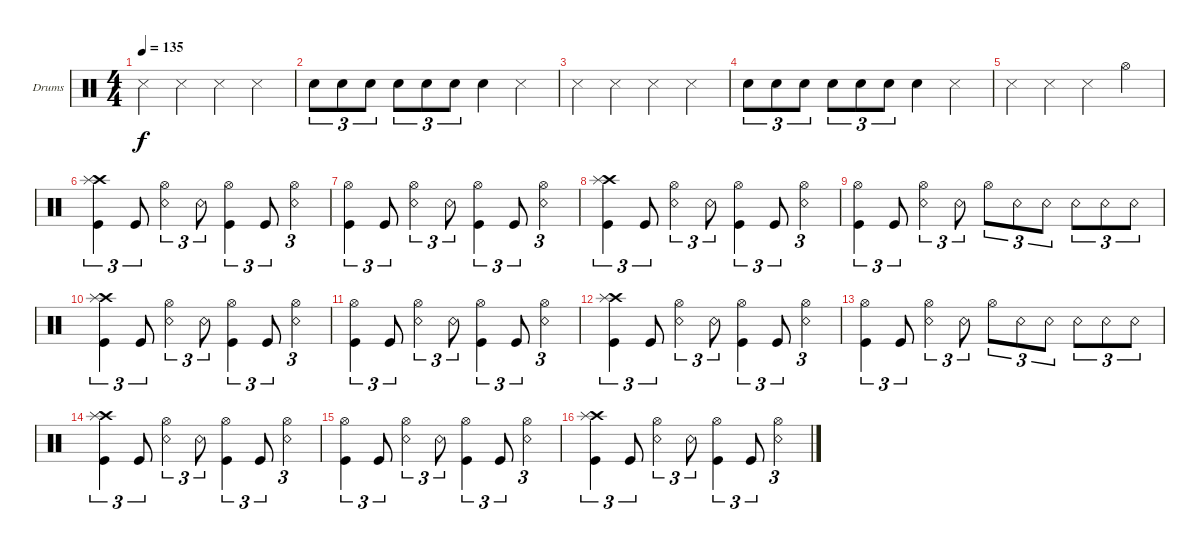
\bracketExtendMode groupsimilarinstruments
\firstSystemTrackNameOrientation horizontal
\otherSystemsTrackNameOrientation horizontal
\track ("Drumkit" "Drums") {instrument percussion}
\staff {score}
\articulation defaults
\ts (4 4)
\tempo 135
\clef neutral
\scale
0.333333
\ks c "Snare (side stick) 3".4{dy f} "Snare (side stick) 3".4 "Snare (side stick) 3".4 "Snare (side stick) 3".4
|
\scale
0.333333 "Snare (hit) 2".8{tu (3 2)} "Snare (hit) 2".8{tu (3 2)} "Snare (hit) 2".8{tu (3 2)} "Snare (hit) 2".8{tu (3 2)} "Snare (hit) 2".8{tu (3 2)} "Snare (hit) 2".8{tu (3 2)} "Snare (hit) 2".4 "Snare (side stick) 3".4 |
\scale
0.333333 "Snare (side stick) 3".4 "Snare (side stick) 3".4 "Snare (side stick) 3".4 "Snare (side stick) 3".4 |
\scale
0.333333 "Snare (hit) 2".8{tu (3 2)} "Snare (hit) 2".8{tu (3 2)} "Snare (hit) 2".8{tu (3 2)} "Snare (hit) 2".8{tu (3 2)} "Snare (hit) 2".8{tu (3 2)} "Snare (hit) 2".8{tu (3 2)} "Snare (hit) 2".4 "Snare (side stick) 3".4 |
\scale
0.333333 "Snare (side stick) 3".4 "Snare (side stick) 3".4 "Snare (side stick) 3".4 "Hi-Hat (open)".4 |
\scale
0.333333 ("Kick (hit)" "Crash high (hit)" "Splash (hit)").4{tu (3 2)} "Kick (hit)".8{tu (3 2)} ("Snare (rim shot)" "Hi-Hat (open)").4{tu (3 2)} "Snare (rim shot)".8{tu (3 2)} ("Kick (hit)" "Hi-Hat (open)").4{tu (3 2)} "Kick (hit)".8{tu (3 2)} ("Snare (rim shot)" "Hi-Hat (open)").4{tu (3 2)} |
\scale
0.333333 ("Kick (hit)" "Hi-Hat (open)").4{tu (3 2)} "Kick (hit)".8{tu (3 2)} ("Snare (rim shot)" "Hi-Hat (open)").4{tu (3 2)} "Snare (rim shot)".8{tu (3 2)} ("Kick (hit)" "Hi-Hat (open)").4{tu (3 2)} "Kick (hit)".8{tu (3 2)} ("Snare (rim shot)" "Hi-Hat (open)").4{tu (3 2)} |
\scale
0.333333 ("Kick (hit)" "Crash high (hit)" "Splash (hit)").4{tu (3 2)} "Kick (hit)".8{tu (3 2)} ("Snare (rim shot)" "Hi-Hat (open)").4{tu (3 2)} "Snare (rim shot)".8{tu (3 2)} ("Kick (hit)" "Hi-Hat (open)").4{tu (3 2)} "Kick (hit)".8{tu (3 2)} ("Snare (rim shot)" "Hi-Hat (open)").4{tu (3 2)} |
\scale
0.333333 ("Kick (hit)" "Hi-Hat (open)").4{tu (3 2)} "Kick (hit)".8{tu (3 2)} ("Snare (rim shot)" "Hi-Hat (open)").4{tu (3 2)} "Snare (rim shot)".8{tu (3 2)} "Hi-Hat (open)".8{tu (3 2)} "Snare (rim shot)".8{tu (3 2)} "Snare (rim shot)".8{tu (3 2)} "Snare (rim shot)".8{tu (3 2)} "Snare (rim shot)".8{tu (3 2)} "Snare (rim shot)".8{tu (3 2)} |
\scale
0.333333 ("Kick (hit)" "Crash high (hit)" "Splash (hit)").4{tu (3 2)} "Kick (hit)".8{tu (3 2)} ("Snare (rim shot)" "Hi-Hat (open)").4{tu (3 2)} "Snare (rim shot)".8{tu (3 2)} ("Kick (hit)" "Hi-Hat (open)").4{tu (3 2)} "Kick (hit)".8{tu (3 2)} ("Snare (rim shot)" "Hi-Hat (open)").4{tu (3 2)} |
\scale
0.333333 ("Kick (hit)" "Hi-Hat (open)").4{tu (3 2)} "Kick (hit)".8{tu (3 2)} ("Snare (rim shot)" "Hi-Hat (open)").4{tu (3 2)} "Snare (rim shot)".8{tu (3 2)} ("Kick (hit)" "Hi-Hat (open)").4{tu (3 2)} "Kick (hit)".8{tu (3 2)} ("Snare (rim shot)" "Hi-Hat (open)").4{tu (3 2)} |
\scale
0.333333 ("Kick (hit)" "Crash high (hit)" "Splash (hit)").4{tu (3 2)} "Kick (hit)".8{tu (3 2)} ("Snare (rim shot)" "Hi-Hat (open)").4{tu (3 2)} "Snare (rim shot)".8{tu (3 2)} ("Kick (hit)" "Hi-Hat (open)").4{tu (3 2)} "Kick (hit)".8{tu (3 2)} ("Snare (rim shot)" "Hi-Hat (open)").4{tu (3 2)} |
\scale
0.333333 ("Kick (hit)" "Hi-Hat (open)").4{tu (3 2)} "Kick (hit)".8{tu (3 2)} ("Snare (rim shot)" "Hi-Hat (open)").4{tu (3 2)} "Snare (rim shot)".8{tu (3 2)} "Hi-Hat (open)".8{tu (3 2)} "Snare (rim shot)".8{tu (3 2)} "Snare (rim shot)".8{tu (3 2)} "Snare (rim shot)".8{tu (3 2)} "Snare (rim shot)".8{tu (3 2)} "Snare (rim shot)".8{tu (3 2)} |
\scale
0.333333 ("Kick (hit)" "Crash high (hit)" "Splash (hit)").4{tu (3 2)} "Kick (hit)".8{tu (3 2)} ("Snare (rim shot)" "Hi-Hat (open)").4{tu (3 2)} "Snare (rim shot)".8{tu (3 2)} ("Kick (hit)" "Hi-Hat (open)").4{tu (3 2)} "Kick (hit)".8{tu (3 2)} ("Snare (rim shot)" "Hi-Hat (open)").4{tu (3 2)} |
\scale
0.333333 ("Kick (hit)" "Hi-Hat (open)").4{tu (3 2)} "Kick (hit)".8{tu (3 2)} ("Snare (rim shot)" "Hi-Hat (open)").4{tu (3 2)} "Snare (rim shot)".8{tu (3 2)} ("Kick (hit)" "Hi-Hat (open)").4{tu (3 2)} "Kick (hit)".8{tu (3 2)} ("Snare (rim shot)" "Hi-Hat (open)").4{tu (3 2)} |
\scale
0.333333 ("Kick (hit)" "Crash high (hit)" "Splash (hit)").4{tu (3 2)} "Kick (hit)".8{tu (3 2)} ("Snare (rim shot)" "Hi-Hat (open)").4{tu (3 2)} "Snare (rim shot)".8{tu (3 2)} ("Kick (hit)" "Hi-Hat (open)").4{tu (3 2)} "Kick (hit)".8{tu (3 2)} ("Snare (rim shot)" "Hi-Hat (open)").4{tu (3 2)}
